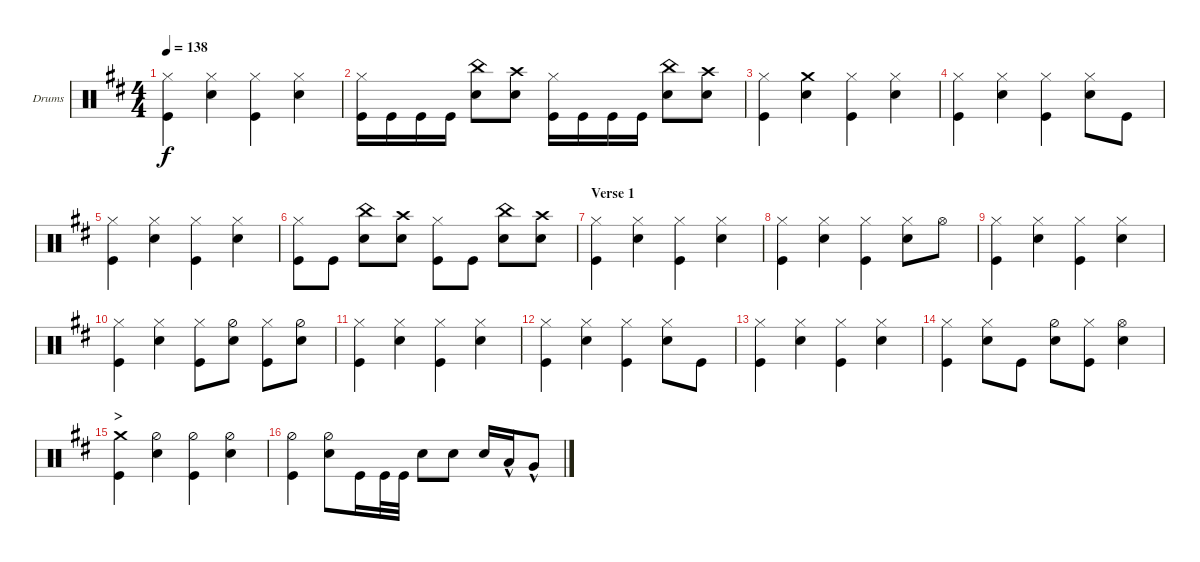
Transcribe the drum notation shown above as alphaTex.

\defaultSystemsLayout 4
\bracketExtendMode groupsimilarinstruments
\firstSystemTrackNameOrientation horizontal
\otherSystemsTrackNameOrientation horizontal
\track ("Drumkit" "Drums") {instrument percussion}
\staff {score}
\articulation defaults
\ts (4 4)
\tempo 138
\clef neutral
\ks d
("Hi-Hat (closed)" "Kick (hit)").4{dy f} ("Hi-Hat (closed)" "Snare (hit) 2").4 ("Hi-Hat (closed)" "Kick (hit)").4 ("Hi-Hat (closed)" "Snare (hit) 2").4 |
("Kick (hit)" "Hi-Hat (closed)").16 "Kick (hit)".16 "Kick (hit)".16 "Kick (hit)".16 ("China (hit)" "Snare (hit) 2").8 ("Crash high (hit)" "Snare (hit) 2").8 ("Kick (hit)" "Hi-Hat (closed)").16 "Kick (hit)".16 "Kick (hit)".16 "Kick (hit)".16 ("China (hit)" "Snare (hit) 2").8 ("Crash high (hit)" "Snare (hit) 2").8 |
("Hi-Hat (closed)" "Kick (hit)").4 ("Snare (hit) 2" "Crash medium (hit)").4 ("Hi-Hat (closed)" "Kick (hit)").4 ("Hi-Hat (closed)" "Snare (hit) 2").4 |
("Hi-Hat (closed)" "Kick (hit)").4 ("Hi-Hat (closed)" "Snare (hit) 2").4 ("Hi-Hat (closed)" "Kick (hit)").4 ("Hi-Hat (closed)" "Snare (hit) 2").8 "Kick (hit)".8 |
("Hi-Hat (closed)" "Kick (hit)").4 ("Hi-Hat (closed)" "Snare (hit) 2").4 ("Hi-Hat (closed)" "Kick (hit)").4 ("Hi-Hat (closed)" "Snare (hit) 2").4 |
("Kick (hit)" "Hi-Hat (closed)").8 "Kick (hit)".8 ("China (hit)" "Snare (hit) 2").8 ("Crash high (hit)" "Snare (hit) 2").8 ("Kick (hit)" "Hi-Hat (closed)").8 "Kick (hit)".8 ("China (hit)" "Snare (hit) 2").8 ("Crash high (hit)" "Snare (hit) 2").8 |
\section ("" "Verse 1")
("Hi-Hat (closed)" "Kick (hit)").4 ("Hi-Hat (closed)" "Snare (hit) 2").4 ("Hi-Hat (closed)" "Kick (hit)").4 ("Hi-Hat (closed)" "Snare (hit) 2").4 |
("Hi-Hat (closed)" "Kick (hit)").4 ("Hi-Hat (closed)" "Snare (hit) 2").4 ("Hi-Hat (closed)" "Kick (hit)").4 ("Hi-Hat (closed)" "Snare (hit) 2").8 "Hi-Hat (open)".8 |
("Hi-Hat (closed)" "Kick (hit)").4 ("Hi-Hat (closed)" "Snare (hit) 2").4 ("Hi-Hat (closed)" "Kick (hit)").4 ("Hi-Hat (closed)" "Snare (hit) 2").4 |
("Hi-Hat (closed)" "Kick (hit)").4 ("Hi-Hat (closed)" "Snare (hit) 2").4 ("Hi-Hat (closed)" "Kick (hit)").8 ("Hi-Hat (half)" "Snare (hit) 2").8 ("Hi-Hat (closed)" "Kick (hit)").8 ("Hi-Hat (half)" "Snare (hit) 2").8 |
("Hi-Hat (closed)" "Kick (hit)").4 ("Hi-Hat (closed)" "Snare (hit) 2").4 ("Hi-Hat (closed)" "Kick (hit)").4 ("Hi-Hat (closed)" "Snare (hit) 2").4 |
("Hi-Hat (closed)" "Kick (hit)").4 ("Hi-Hat (closed)" "Snare (hit) 2").4 ("Hi-Hat (closed)" "Kick (hit)").4 ("Hi-Hat (closed)" "Snare (hit) 2").8 "Kick (hit)".8 |
("Hi-Hat (closed)" "Kick (hit)").4 ("Hi-Hat (closed)" "Snare (hit) 2").4 ("Hi-Hat (closed)" "Kick (hit)").4 ("Hi-Hat (closed)" "Snare (hit) 2").4 |
("Hi-Hat (closed)" "Kick (hit)").4 ("Hi-Hat (closed)" "Snare (hit) 2").8 "Kick (hit)".8 ("Snare (hit) 2" "Hi-Hat (half)").8 ("Hi-Hat (closed)" "Kick (hit)").8 ("Hi-Hat (open)" "Snare (hit) 2").4 |
\section ("" ">")
("Kick (hit)" "Crash medium (hit)").4 ("Hi-Hat (half)" "Snare (hit) 2").4 ("Hi-Hat (half)" "Kick (hit)").4 ("Hi-Hat (half)" "Snare (hit) 2").4 |
("Hi-Hat (half)" "Kick (hit)").4 ("Hi-Hat (half)" "Snare (hit) 2").8 "Kick (hit)".16 "Kick (hit)".32 "Kick (hit)".32 "Snare (hit) 2".8 "Snare (hit) 2".8 "Snare (hit) 2".16 "Low Tom (hit)"{hac}.16 "Very Low Tom (hit)"{hac}.8
